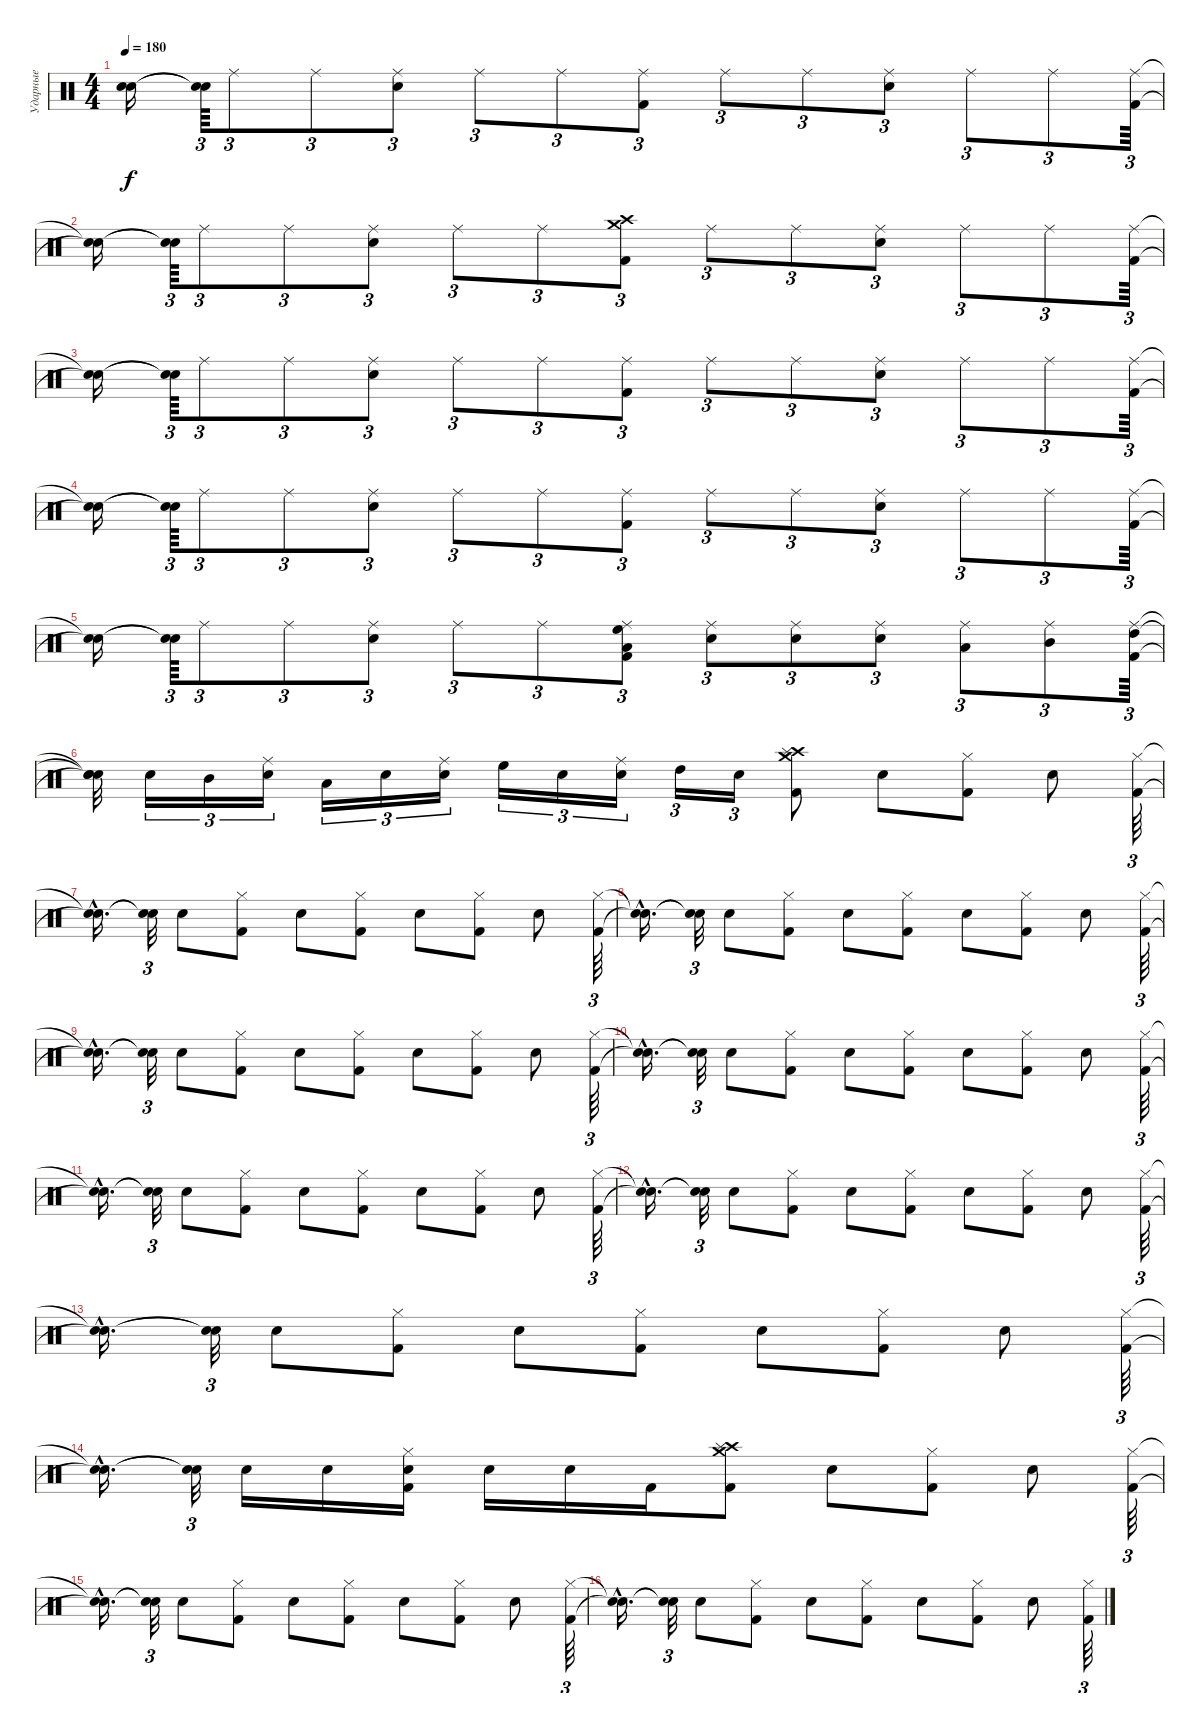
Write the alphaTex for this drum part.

\track ("Ударные" "Ударные") {instrument percussion}
\staff {score}
\articulation defaults
\ts (4 4)
\tempo 180
\clef neutral
\ks c
("Snare (hit)"{t} "Snare (hit)"{t}).16{dy f} ("Snare (hit)"{t} "Snare (hit)"{t}).64{tu (3 2)} "Ride (middle)".8{tu (3 2)} "Ride (middle)".8{tu (3 2)} ("Ride (middle)" "Snare (hit) 2").8{tu (3 2)} "Ride (middle)".8{tu (3 2)} "Ride (middle)".8{tu (3 2)} ("Ride (middle)" "Kick (hit) 2").8{tu (3 2)} "Ride (middle)".8{tu (3 2)} "Ride (middle)".8{tu (3 2)} ("Ride (middle)" "Snare (hit) 2").8{tu (3 2)} "Ride (middle)".8{tu (3 2)} "Ride (middle)".8{tu (3 2)} ("Ride (middle)" "Kick (hit) 2").64{tu (3 2)} |
("Snare (hit)"{t} "Snare (hit)"{t}).16 ("Snare (hit)"{t} "Snare (hit)"{t}).64{tu (3 2)} "Ride (middle)".8{tu (3 2)} "Ride (middle)".8{tu (3 2)} ("Ride (middle)" "Snare (hit) 2").8{tu (3 2)} "Ride (middle)".8{tu (3 2)} "Ride (middle)".8{tu (3 2)} ("Crash high (hit)" "Crash medium (hit)" "Kick (hit) 2").8{tu (3 2)} "Ride (middle)".8{tu (3 2)} "Ride (middle)".8{tu (3 2)} ("Ride (middle)" "Snare (hit) 2").8{tu (3 2)} "Ride (middle)".8{tu (3 2)} "Ride (middle)".8{tu (3 2)} ("Ride (middle)" "Kick (hit) 2").64{tu (3 2)} |
("Snare (hit)"{t} "Snare (hit)"{t}).16 ("Snare (hit)"{t} "Snare (hit)"{t}).64{tu (3 2)} "Ride (middle)".8{tu (3 2)} "Ride (middle)".8{tu (3 2)} ("Ride (middle)" "Snare (hit) 2").8{tu (3 2)} "Ride (middle)".8{tu (3 2)} "Ride (middle)".8{tu (3 2)} ("Ride (middle)" "Kick (hit) 2").8{tu (3 2)} "Ride (middle)".8{tu (3 2)} "Ride (middle)".8{tu (3 2)} ("Ride (middle)" "Snare (hit) 2").8{tu (3 2)} "Ride (middle)".8{tu (3 2)} "Ride (middle)".8{tu (3 2)} ("Ride (middle)" "Kick (hit) 2").64{tu (3 2)} |
("Snare (hit)"{t} "Snare (hit)"{t}).16 ("Snare (hit)"{t} "Snare (hit)"{t}).64{tu (3 2)} "Ride (middle)".8{tu (3 2)} "Ride (middle)".8{tu (3 2)} ("Ride (middle)" "Snare (hit) 2").8{tu (3 2)} "Ride (middle)".8{tu (3 2)} "Ride (middle)".8{tu (3 2)} ("Ride (middle)" "Kick (hit) 2").8{tu (3 2)} "Ride (middle)".8{tu (3 2)} "Ride (middle)".8{tu (3 2)} ("Ride (middle)" "Snare (hit) 2").8{tu (3 2)} "Ride (middle)".8{tu (3 2)} "Ride (middle)".8{tu (3 2)} ("Ride (middle)" "Kick (hit) 2").64{tu (3 2)} |
("Snare (hit)"{t} "Snare (hit)"{t}).16 ("Snare (hit)"{t} "Snare (hit)"{t}).64{tu (3 2)} "Ride (middle)".8{tu (3 2)} "Ride (middle)".8{tu (3 2)} ("Ride (middle)" "Snare (hit) 2").8{tu (3 2)} "Ride (middle)".8{tu (3 2)} "Ride (middle)".8{tu (3 2)} ("Ride (middle)" "High Floor Tom (hit)" "Low Tom (hit)" "Kick (hit) 2").8{tu (3 2)} ("Ride (middle)" "Snare (hit) 2").8{tu (3 2)} ("Ride (middle)" "Snare (hit) 2").8{tu (3 2)} ("Ride (middle)" "Snare (hit) 2").8{tu (3 2)} ("Ride (middle)" "Low Floor Tom (hit)").8{tu (3 2)} ("Ride (middle)" "Mid Tom (hit)").8{tu (3 2)} ("Ride (middle)" "High Tom (hit)" "Kick (hit) 2").64{tu (3 2)} |
("Snare (hit)"{t} "Snare (hit)"{t} "Snare (hit)"{t}).32 "Snare (hit) 2".16{tu (3 2)} "Mid Tom (hit)".16{tu (3 2)} ("Ride (middle)" "Snare (hit) 2").16{tu (3 2)} "Low Tom (hit)".16{tu (3 2)} "Snare (hit) 2".16{tu (3 2)} ("Ride (middle)" "Snare (hit) 2").16{tu (3 2)} "High Floor Tom (hit)".16{tu (3 2)} "Snare (hit) 2".16{tu (3 2)} ("Ride (middle)" "Snare (hit) 2").16{tu (3 2)} "High Tom (hit)".16{tu (3 2)} "Snare (hit) 2".16{tu (3 2)} ("Crash high (hit)" "Crash medium (hit)" "Splash (hit)" "Kick (hit) 2").8 "Snare (hit) 2".8 ("Hi-Hat (closed)" "Kick (hit) 2").8 "Snare (hit) 2".8 ("Hi-Hat (closed)" "Kick (hit) 2").64{tu (3 2)} |
("Snare (hit)"{hac t} "Snare (hit)"{hac t}).16{d} ("Snare (hit)"{t} "Snare (hit)"{t}).32{tu (3 2)} "Snare (hit) 2".8 ("Hi-Hat (closed)" "Kick (hit) 2").8 "Snare (hit) 2".8 ("Hi-Hat (closed)" "Kick (hit) 2").8 "Snare (hit) 2".8 ("Hi-Hat (closed)" "Kick (hit) 2").8 "Snare (hit) 2".8 ("Hi-Hat (closed)" "Kick (hit) 2").64{tu (3 2)} |
("Snare (hit)"{hac t} "Snare (hit)"{hac t}).16{d} ("Snare (hit)"{t} "Snare (hit)"{t}).32{tu (3 2)} "Snare (hit) 2".8 ("Hi-Hat (closed)" "Kick (hit) 2").8 "Snare (hit) 2".8 ("Hi-Hat (closed)" "Kick (hit) 2").8 "Snare (hit) 2".8 ("Hi-Hat (closed)" "Kick (hit) 2").8 "Snare (hit) 2".8 ("Hi-Hat (closed)" "Kick (hit) 2").64{tu (3 2)} |
("Snare (hit)"{hac t} "Snare (hit)"{hac t}).16{d} ("Snare (hit)"{t} "Snare (hit)"{t}).32{tu (3 2)} "Snare (hit) 2".8 ("Hi-Hat (closed)" "Kick (hit) 2").8 "Snare (hit) 2".8 ("Hi-Hat (closed)" "Kick (hit) 2").8 "Snare (hit) 2".8 ("Hi-Hat (closed)" "Kick (hit) 2").8 "Snare (hit) 2".8 ("Hi-Hat (closed)" "Kick (hit) 2").64{tu (3 2)} |
("Snare (hit)"{hac t} "Snare (hit)"{hac t}).16{d} ("Snare (hit)"{t} "Snare (hit)"{t}).32{tu (3 2)} "Snare (hit) 2".8 ("Hi-Hat (closed)" "Kick (hit) 2").8 "Snare (hit) 2".8 ("Hi-Hat (closed)" "Kick (hit) 2").8 "Snare (hit) 2".8 ("Hi-Hat (closed)" "Kick (hit) 2").8 "Snare (hit) 2".8 ("Hi-Hat (closed)" "Kick (hit) 2").64{tu (3 2)} |
("Snare (hit)"{hac t} "Snare (hit)"{hac t}).16{d} ("Snare (hit)"{t} "Snare (hit)"{t}).32{tu (3 2)} "Snare (hit) 2".8 ("Hi-Hat (closed)" "Kick (hit) 2").8 "Snare (hit) 2".8 ("Hi-Hat (closed)" "Kick (hit) 2").8 "Snare (hit) 2".8 ("Hi-Hat (closed)" "Kick (hit) 2").8 "Snare (hit) 2".8 ("Hi-Hat (closed)" "Kick (hit) 2").64{tu (3 2)} |
("Snare (hit)"{hac t} "Snare (hit)"{hac t}).16{d} ("Snare (hit)"{t} "Snare (hit)"{t}).32{tu (3 2)} "Snare (hit) 2".8 ("Hi-Hat (closed)" "Kick (hit) 2").8 "Snare (hit) 2".8 ("Hi-Hat (closed)" "Kick (hit) 2").8 "Snare (hit) 2".8 ("Hi-Hat (closed)" "Kick (hit) 2").8 "Snare (hit) 2".8 ("Hi-Hat (closed)" "Kick (hit) 2").64{tu (3 2)} |
("Snare (hit)"{hac t} "Snare (hit)"{hac t}).16{d} ("Snare (hit)"{t} "Snare (hit)"{t}).32{tu (3 2)} "Snare (hit) 2".8 ("Hi-Hat (closed)" "Kick (hit) 2").8 "Snare (hit) 2".8 ("Hi-Hat (closed)" "Kick (hit) 2").8 "Snare (hit) 2".8 ("Hi-Hat (closed)" "Kick (hit) 2").8 "Snare (hit) 2".8 ("Hi-Hat (closed)" "Kick (hit) 2").64{tu (3 2)} |
("Snare (hit)"{hac t} "Snare (hit)"{hac t}).16{d} ("Snare (hit)"{t} "Snare (hit)"{t}).32{tu (3 2)} "Snare (hit) 2".16 "Snare (hit) 2".16 ("Hi-Hat (closed)" "Snare (hit) 2" "Kick (hit) 2").16 "Snare (hit) 2".16 "Snare (hit) 2".16 "Kick (hit) 2".16 ("Crash high (hit)" "Crash medium (hit)" "Splash (hit)" "Kick (hit) 2").8 "Snare (hit) 2".8 ("Hi-Hat (closed)" "Kick (hit) 2").8 "Snare (hit) 2".8 ("Hi-Hat (closed)" "Kick (hit) 2").64{tu (3 2)} |
("Snare (hit)"{hac t} "Snare (hit)"{hac t}).16{d} ("Snare (hit)"{t} "Snare (hit)"{t}).32{tu (3 2)} "Snare (hit) 2".8 ("Hi-Hat (closed)" "Kick (hit) 2").8 "Snare (hit) 2".8 ("Hi-Hat (closed)" "Kick (hit) 2").8 "Snare (hit) 2".8 ("Hi-Hat (closed)" "Kick (hit) 2").8 "Snare (hit) 2".8 ("Hi-Hat (closed)" "Kick (hit) 2").64{tu (3 2)} |
("Snare (hit)"{hac t} "Snare (hit)"{hac t}).16{d} ("Snare (hit)"{t} "Snare (hit)"{t}).32{tu (3 2)} "Snare (hit) 2".8 ("Hi-Hat (closed)" "Kick (hit) 2").8 "Snare (hit) 2".8 ("Hi-Hat (closed)" "Kick (hit) 2").8 "Snare (hit) 2".8 ("Hi-Hat (closed)" "Kick (hit) 2").8 "Snare (hit) 2".8 ("Hi-Hat (closed)" "Kick (hit) 2").64{tu (3 2)}
